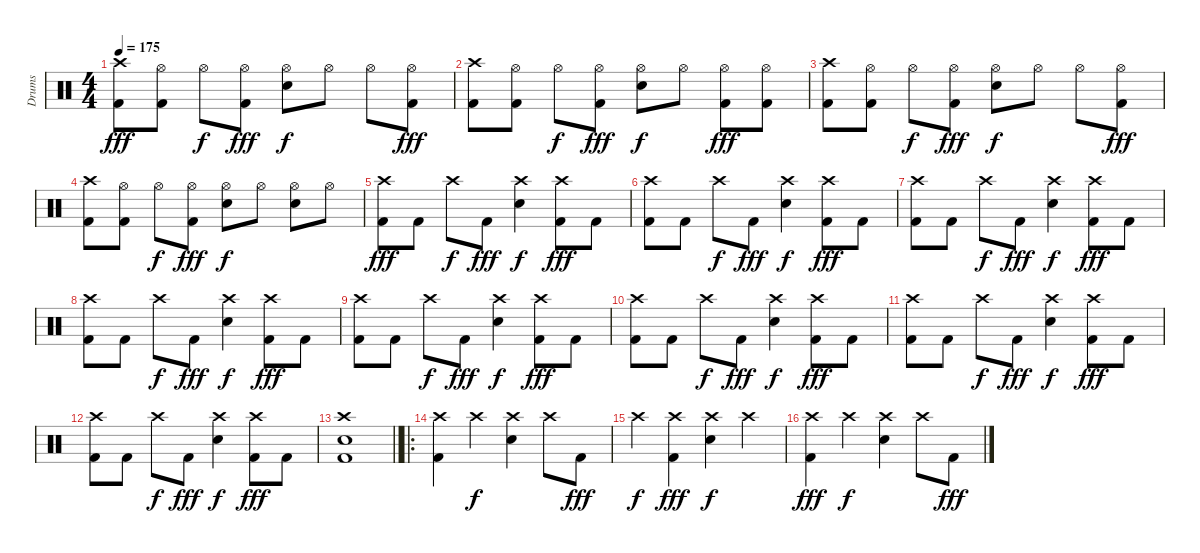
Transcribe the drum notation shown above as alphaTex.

\track ("Drums" "Drums") {instrument percussion}
\staff {score}
\articulation defaults
\ts (4 4)
\tempo 175
\clef neutral
\ks c
("Crash high (hit)" "Kick (hit) 2").8{dy fff} ("Hi-Hat (open)" "Kick (hit) 2").8 "Hi-Hat (open)".8{dy f} ("Hi-Hat (open)" "Kick (hit) 2").8{dy fff} ("Hi-Hat (open)" "Electric Snare (hit)").8{dy f} "Hi-Hat (open)".8 "Hi-Hat (open)".8 ("Hi-Hat (open)" "Kick (hit) 2").8{dy fff} |
("Crash high (hit)" "Kick (hit) 2").8 ("Hi-Hat (open)" "Kick (hit) 2").8 "Hi-Hat (open)".8{dy f} ("Hi-Hat (open)" "Kick (hit) 2").8{dy fff} ("Hi-Hat (open)" "Electric Snare (hit)").8{dy f} "Hi-Hat (open)".8 ("Hi-Hat (open)" "Kick (hit) 2").8{dy fff} ("Hi-Hat (open)" "Kick (hit) 2").8 |
("Crash high (hit)" "Kick (hit) 2").8 ("Hi-Hat (open)" "Kick (hit) 2").8 "Hi-Hat (open)".8{dy f} ("Hi-Hat (open)" "Kick (hit) 2").8{dy fff} ("Hi-Hat (open)" "Electric Snare (hit)").8{dy f} "Hi-Hat (open)".8 "Hi-Hat (open)".8 ("Hi-Hat (open)" "Kick (hit) 2").8{dy fff} |
("Crash high (hit)" "Kick (hit) 2").8 ("Hi-Hat (open)" "Kick (hit) 2").8 "Hi-Hat (open)".8{dy f} ("Hi-Hat (open)" "Kick (hit) 2").8{dy fff} ("Hi-Hat (open)" "Electric Snare (hit)").8{dy f} "Hi-Hat (open)".8 ("Hi-Hat (open)" "Electric Snare (hit)").8 "Hi-Hat (open)".8 |
("Crash high (hit)" "Kick (hit) 2").8{dy fff} "Kick (hit) 2".8 "Crash high (hit)".8{dy f} "Kick (hit) 2".8{dy fff} ("Crash high (hit)" "Electric Snare (hit)").4{dy f} ("Crash high (hit)" "Kick (hit) 2").8{dy fff} "Kick (hit) 2".8 |
("Crash high (hit)" "Kick (hit) 2").8 "Kick (hit) 2".8 "Crash high (hit)".8{dy f} "Kick (hit) 2".8{dy fff} ("Crash high (hit)" "Electric Snare (hit)").4{dy f} ("Crash high (hit)" "Kick (hit) 2").8{dy fff} "Kick (hit) 2".8 |
("Crash high (hit)" "Kick (hit) 2").8 "Kick (hit) 2".8 "Crash high (hit)".8{dy f} "Kick (hit) 2".8{dy fff} ("Crash high (hit)" "Electric Snare (hit)").4{dy f} ("Crash high (hit)" "Kick (hit) 2").8{dy fff} "Kick (hit) 2".8 |
("Crash high (hit)" "Kick (hit) 2").8 "Kick (hit) 2".8 "Crash high (hit)".8{dy f} "Kick (hit) 2".8{dy fff} ("Crash high (hit)" "Electric Snare (hit)").4{dy f} ("Crash high (hit)" "Kick (hit) 2").8{dy fff} "Kick (hit) 2".8 |
("Crash high (hit)" "Kick (hit) 2").8 "Kick (hit) 2".8 "Crash high (hit)".8{dy f} "Kick (hit) 2".8{dy fff} ("Crash high (hit)" "Electric Snare (hit)").4{dy f} ("Crash high (hit)" "Kick (hit) 2").8{dy fff} "Kick (hit) 2".8 |
("Crash high (hit)" "Kick (hit) 2").8 "Kick (hit) 2".8 "Crash high (hit)".8{dy f} "Kick (hit) 2".8{dy fff} ("Crash high (hit)" "Electric Snare (hit)").4{dy f} ("Crash high (hit)" "Kick (hit) 2").8{dy fff} "Kick (hit) 2".8 |
("Crash high (hit)" "Kick (hit) 2").8 "Kick (hit) 2".8 "Crash high (hit)".8{dy f} "Kick (hit) 2".8{dy fff} ("Crash high (hit)" "Electric Snare (hit)").4{dy f} ("Crash high (hit)" "Kick (hit) 2").8{dy fff} "Kick (hit) 2".8 |
("Crash high (hit)" "Kick (hit) 2").8 "Kick (hit) 2".8 "Crash high (hit)".8{dy f} "Kick (hit) 2".8{dy fff} ("Crash high (hit)" "Electric Snare (hit)").4{dy f} ("Crash high (hit)" "Kick (hit) 2").8{dy fff} "Kick (hit) 2".8 |
\barLineRight lightlight
("Crash high (hit)" "Electric Snare (hit)" "Kick (hit) 2").1 |
\ro
("Crash high (hit)" "Kick (hit) 2").4 "Crash high (hit)".4{dy f} ("Crash high (hit)" "Electric Snare (hit)").4 "Crash high (hit)".8 "Kick (hit) 2".8{dy fff} |
"Crash high (hit)".4{dy f} ("Crash high (hit)" "Kick (hit) 2").4{dy fff} ("Crash high (hit)" "Electric Snare (hit)").4{dy f} "Crash high (hit)".4 |
("Crash high (hit)" "Kick (hit) 2").4{dy fff} "Crash high (hit)".4{dy f} ("Crash high (hit)" "Electric Snare (hit)").4 "Crash high (hit)".8 "Kick (hit) 2".8{dy fff}
